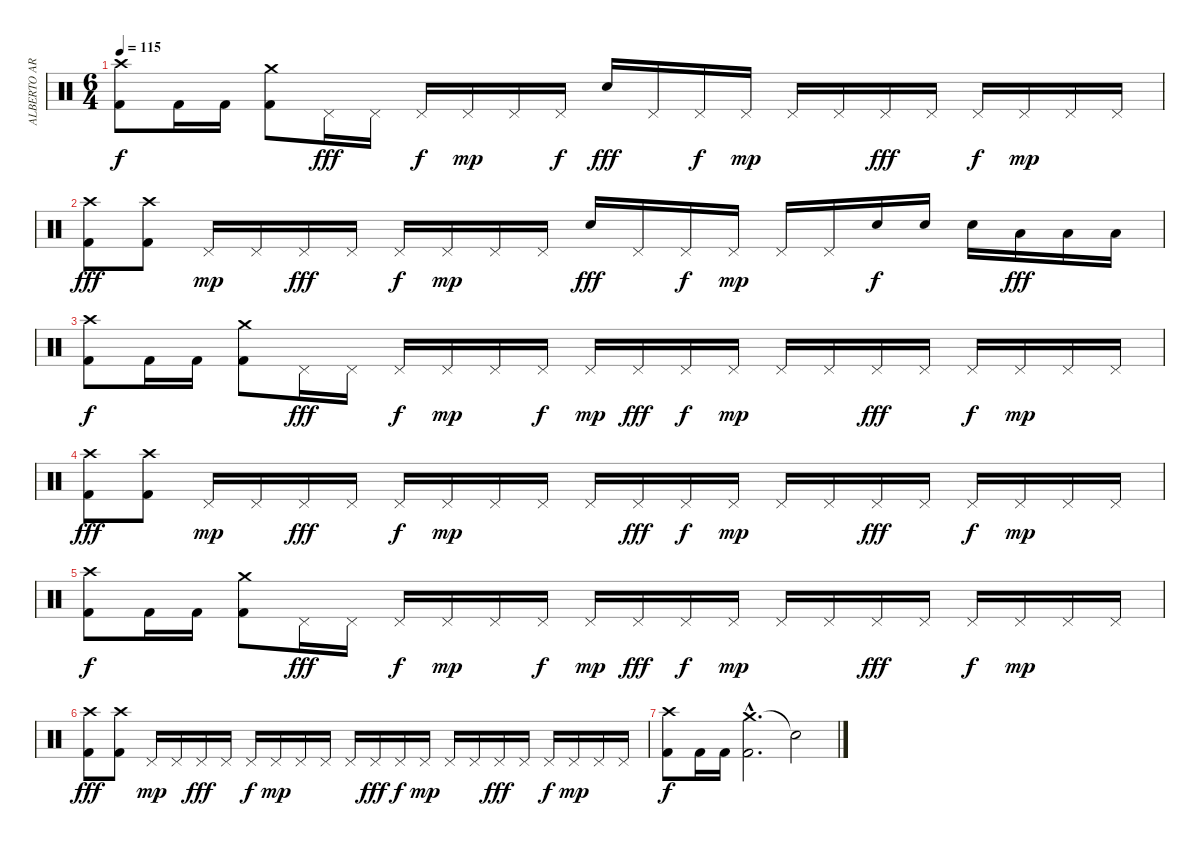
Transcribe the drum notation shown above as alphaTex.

\track ("ALBERTO ARDINES" "ALBERTO AR") {instrument percussion}
\staff {score}
\articulation defaults
\ts (6 4)
\tempo 115
\clef neutral
\ks c
("Crash high (hit)" "Kick (hit) 2").8{dy f} "Kick (hit) 2".16 "Kick (hit) 2".16 ("Crash medium (hit)" "Kick (hit) 2").8 "Pedal Hi-Hat (hit)".16{dy fff} "Pedal Hi-Hat (hit)".16 "Pedal Hi-Hat (hit)".16{dy f} "Pedal Hi-Hat (hit)".16{dy mp} "Pedal Hi-Hat (hit)".16 "Pedal Hi-Hat (hit)".16{dy f} "Electric Snare (hit)".16{dy fff} "Pedal Hi-Hat (hit)".16 "Pedal Hi-Hat (hit)".16{dy f} "Pedal Hi-Hat (hit)".16{dy mp} "Pedal Hi-Hat (hit)".16 "Pedal Hi-Hat (hit)".16 "Pedal Hi-Hat (hit)".16{dy fff} "Pedal Hi-Hat (hit)".16 "Pedal Hi-Hat (hit)".16{dy f} "Pedal Hi-Hat (hit)".16{dy mp} "Pedal Hi-Hat (hit)".16 "Pedal Hi-Hat (hit)".16 |
("Crash high (hit)" "Kick (hit) 2").8{dy fff} ("Crash high (hit)" "Kick (hit) 2").8 "Pedal Hi-Hat (hit)".16{dy mp} "Pedal Hi-Hat (hit)".16 "Pedal Hi-Hat (hit)".16{dy fff} "Pedal Hi-Hat (hit)".16 "Pedal Hi-Hat (hit)".16{dy f} "Pedal Hi-Hat (hit)".16{dy mp} "Pedal Hi-Hat (hit)".16 "Pedal Hi-Hat (hit)".16 "Electric Snare (hit)".16{dy fff} "Pedal Hi-Hat (hit)".16 "Pedal Hi-Hat (hit)".16{dy f} "Pedal Hi-Hat (hit)".16{dy mp} "Pedal Hi-Hat (hit)".16 "Pedal Hi-Hat (hit)".16 "Electric Snare (hit)".16{dy f} "Electric Snare (hit)".16 "Electric Snare (hit)".16 "Low Tom (hit)".16{dy fff} "Low Tom (hit)".16 "Low Tom (hit)".16 |
("Crash high (hit)" "Kick (hit) 2").8{dy f} "Kick (hit) 2".16 "Kick (hit) 2".16 ("Crash medium (hit)" "Kick (hit) 2").8 "Pedal Hi-Hat (hit)".16{dy fff} "Pedal Hi-Hat (hit)".16 "Pedal Hi-Hat (hit)".16{dy f} "Pedal Hi-Hat (hit)".16{dy mp} "Pedal Hi-Hat (hit)".16 "Pedal Hi-Hat (hit)".16{dy f} "Pedal Hi-Hat (hit)".16{dy mp} "Pedal Hi-Hat (hit)".16{dy fff} "Pedal Hi-Hat (hit)".16{dy f} "Pedal Hi-Hat (hit)".16{dy mp} "Pedal Hi-Hat (hit)".16 "Pedal Hi-Hat (hit)".16 "Pedal Hi-Hat (hit)".16{dy fff} "Pedal Hi-Hat (hit)".16 "Pedal Hi-Hat (hit)".16{dy f} "Pedal Hi-Hat (hit)".16{dy mp} "Pedal Hi-Hat (hit)".16 "Pedal Hi-Hat (hit)".16 |
("Crash high (hit)" "Kick (hit) 2").8{dy fff} ("Crash high (hit)" "Kick (hit) 2").8 "Pedal Hi-Hat (hit)".16{dy mp} "Pedal Hi-Hat (hit)".16 "Pedal Hi-Hat (hit)".16{dy fff} "Pedal Hi-Hat (hit)".16 "Pedal Hi-Hat (hit)".16{dy f} "Pedal Hi-Hat (hit)".16{dy mp} "Pedal Hi-Hat (hit)".16 "Pedal Hi-Hat (hit)".16 "Pedal Hi-Hat (hit)".16 "Pedal Hi-Hat (hit)".16{dy fff} "Pedal Hi-Hat (hit)".16{dy f} "Pedal Hi-Hat (hit)".16{dy mp} "Pedal Hi-Hat (hit)".16 "Pedal Hi-Hat (hit)".16 "Pedal Hi-Hat (hit)".16{dy fff} "Pedal Hi-Hat (hit)".16 "Pedal Hi-Hat (hit)".16{dy f} "Pedal Hi-Hat (hit)".16{dy mp} "Pedal Hi-Hat (hit)".16 "Pedal Hi-Hat (hit)".16 |
("Crash high (hit)" "Kick (hit) 2").8{dy f} "Kick (hit) 2".16 "Kick (hit) 2".16 ("Crash medium (hit)" "Kick (hit) 2").8 "Pedal Hi-Hat (hit)".16{dy fff} "Pedal Hi-Hat (hit)".16 "Pedal Hi-Hat (hit)".16{dy f} "Pedal Hi-Hat (hit)".16{dy mp} "Pedal Hi-Hat (hit)".16 "Pedal Hi-Hat (hit)".16{dy f} "Pedal Hi-Hat (hit)".16{dy mp} "Pedal Hi-Hat (hit)".16{dy fff} "Pedal Hi-Hat (hit)".16{dy f} "Pedal Hi-Hat (hit)".16{dy mp} "Pedal Hi-Hat (hit)".16 "Pedal Hi-Hat (hit)".16 "Pedal Hi-Hat (hit)".16{dy fff} "Pedal Hi-Hat (hit)".16 "Pedal Hi-Hat (hit)".16{dy f} "Pedal Hi-Hat (hit)".16{dy mp} "Pedal Hi-Hat (hit)".16 "Pedal Hi-Hat (hit)".16 |
("Crash high (hit)" "Kick (hit) 2").8{dy fff} ("Crash high (hit)" "Kick (hit) 2").8 "Pedal Hi-Hat (hit)".16{dy mp} "Pedal Hi-Hat (hit)".16 "Pedal Hi-Hat (hit)".16{dy fff} "Pedal Hi-Hat (hit)".16 "Pedal Hi-Hat (hit)".16{dy f} "Pedal Hi-Hat (hit)".16{dy mp} "Pedal Hi-Hat (hit)".16 "Pedal Hi-Hat (hit)".16 "Pedal Hi-Hat (hit)".16 "Pedal Hi-Hat (hit)".16{dy fff} "Pedal Hi-Hat (hit)".16{dy f} "Pedal Hi-Hat (hit)".16{dy mp} "Pedal Hi-Hat (hit)".16 "Pedal Hi-Hat (hit)".16 "Pedal Hi-Hat (hit)".16{dy fff} "Pedal Hi-Hat (hit)".16 "Pedal Hi-Hat (hit)".16{dy f} "Pedal Hi-Hat (hit)".16{dy mp} "Pedal Hi-Hat (hit)".16 "Pedal Hi-Hat (hit)".16 |
("Crash high (hit)" "Kick (hit) 2").8{dy f} "Kick (hit) 2".16 "Kick (hit) 2".16 ("Crash medium (hit)"{hac} "Kick (hit) 2"{hac}).2{d} "Snare (hit)"{t}.2
